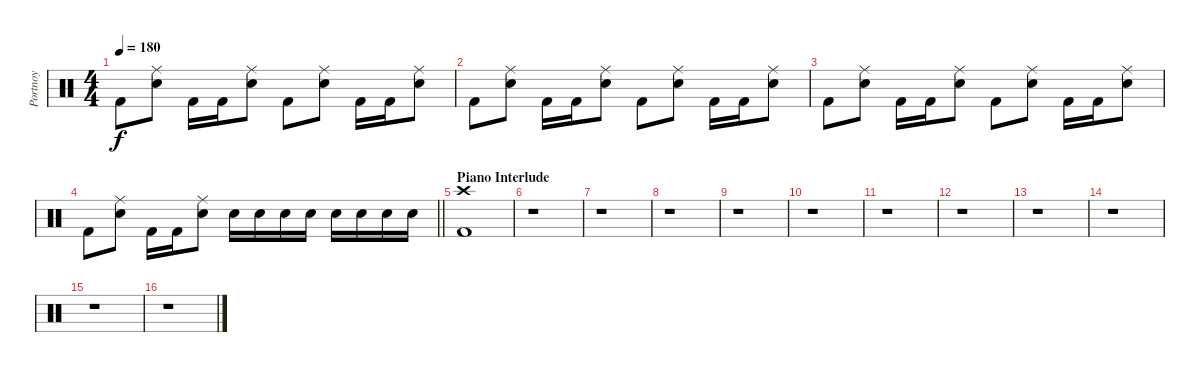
\track ("Portnoy" "Portnoy") {instrument percussion}
\staff {score}
\articulation defaults
\ts (4 4)
\tempo 180
\clef neutral
\ks c "Kick (hit) 2".8{dy f}
("Ride (middle)" "Electric Snare (hit)").8 "Kick (hit) 2".16 "Kick (hit) 2".16 ("Ride (middle)" "Electric Snare (hit)").8 "Kick (hit) 2".8 ("Ride (middle)" "Electric Snare (hit)").8 "Kick (hit) 2".16 "Kick (hit) 2".16 ("Ride (middle)" "Electric Snare (hit)").8 |
"Kick (hit) 2".8 ("Ride (middle)" "Electric Snare (hit)").8 "Kick (hit) 2".16 "Kick (hit) 2".16 ("Ride (middle)" "Electric Snare (hit)").8 "Kick (hit) 2".8 ("Ride (middle)" "Electric Snare (hit)").8 "Kick (hit) 2".16 "Kick (hit) 2".16 ("Ride (middle)" "Electric Snare (hit)").8 |
"Kick (hit) 2".8 ("Ride (middle)" "Electric Snare (hit)").8 "Kick (hit) 2".16 "Kick (hit) 2".16 ("Ride (middle)" "Electric Snare (hit)").8 "Kick (hit) 2".8 ("Ride (middle)" "Electric Snare (hit)").8 "Kick (hit) 2".16 "Kick (hit) 2".16 ("Ride (middle)" "Electric Snare (hit)").8 |
\barLineRight lightlight "Kick (hit) 2".8
("Ride (middle)" "Electric Snare (hit)").8 "Kick (hit) 2".16 "Kick (hit) 2".16 ("Ride (middle)" "Electric Snare (hit)").8 "Electric Snare (hit)".16 "Electric Snare (hit)".16 "Electric Snare (hit)".16 "Electric Snare (hit)".16 "Electric Snare (hit)".16 "Electric Snare (hit)".16 "Electric Snare (hit)".16 "Electric Snare (hit)".16 |
\section ("" "Piano Interlude")
("Crash high (hit)" "Kick (hit) 2").1 |
r.1 |
r.1 |
r.1 |
r.1 |
r.1 |
r.1 |
r.1 |
r.1 |
r.1 |
r.1 |
r.1
